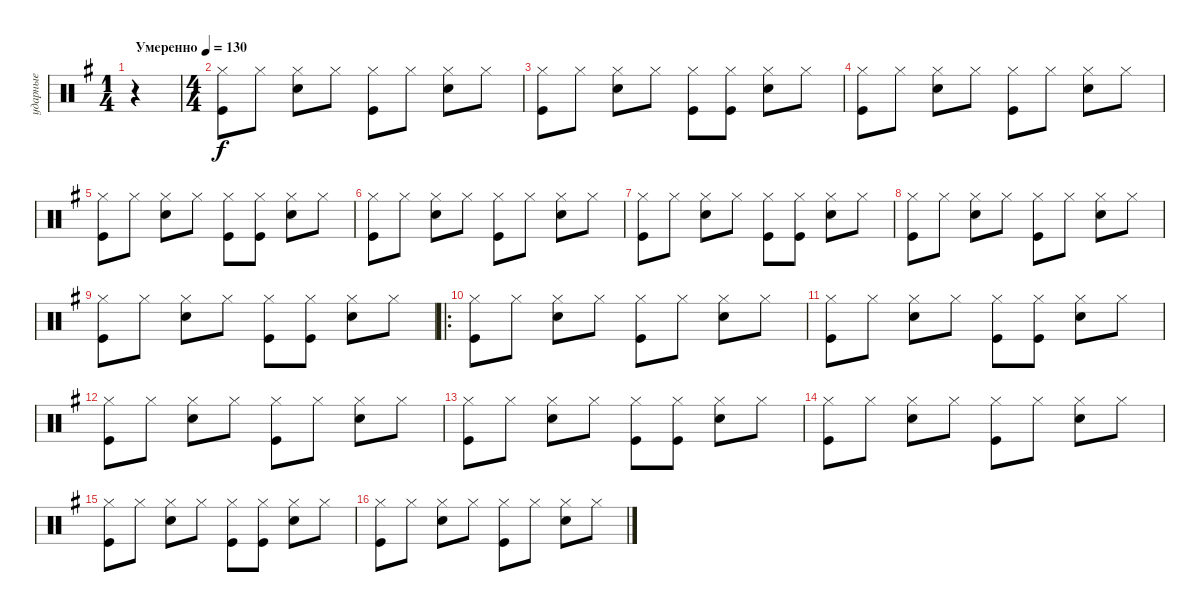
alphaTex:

\track ("ударные" "ударные") {instrument percussion}
\staff {score}
\articulation defaults
\ts (1 4)
\tempo (130 "Умеренно")
\clef neutral
\ks eminor
r.4{dy f} |
\ts (4 4)
("Kick (hit)" "Hi-Hat (closed)").8 "Hi-Hat (closed)".8 ("Snare (hit) 2" "Hi-Hat (closed)").8 "Hi-Hat (closed)".8 ("Kick (hit)" "Hi-Hat (closed)").8 "Hi-Hat (closed)".8 ("Snare (hit) 2" "Hi-Hat (closed)").8 "Hi-Hat (closed)".8 |
("Kick (hit)" "Hi-Hat (closed)").8 "Hi-Hat (closed)".8 ("Snare (hit) 2" "Hi-Hat (closed)").8 "Hi-Hat (closed)".8 ("Kick (hit)" "Hi-Hat (closed)").8 ("Hi-Hat (closed)" "Kick (hit)").8 ("Snare (hit) 2" "Hi-Hat (closed)").8 "Hi-Hat (closed)".8 |
("Kick (hit)" "Hi-Hat (closed)").8 "Hi-Hat (closed)".8 ("Snare (hit) 2" "Hi-Hat (closed)").8 "Hi-Hat (closed)".8 ("Kick (hit)" "Hi-Hat (closed)").8 "Hi-Hat (closed)".8 ("Snare (hit) 2" "Hi-Hat (closed)").8 "Hi-Hat (closed)".8 |
("Kick (hit)" "Hi-Hat (closed)").8 "Hi-Hat (closed)".8 ("Snare (hit) 2" "Hi-Hat (closed)").8 "Hi-Hat (closed)".8 ("Kick (hit)" "Hi-Hat (closed)").8 ("Hi-Hat (closed)" "Kick (hit)").8 ("Snare (hit) 2" "Hi-Hat (closed)").8 "Hi-Hat (closed)".8 |
("Kick (hit)" "Hi-Hat (closed)").8 "Hi-Hat (closed)".8 ("Snare (hit) 2" "Hi-Hat (closed)").8 "Hi-Hat (closed)".8 ("Kick (hit)" "Hi-Hat (closed)").8 "Hi-Hat (closed)".8 ("Snare (hit) 2" "Hi-Hat (closed)").8 "Hi-Hat (closed)".8 |
("Kick (hit)" "Hi-Hat (closed)").8 "Hi-Hat (closed)".8 ("Snare (hit) 2" "Hi-Hat (closed)").8 "Hi-Hat (closed)".8 ("Kick (hit)" "Hi-Hat (closed)").8 ("Hi-Hat (closed)" "Kick (hit)").8 ("Snare (hit) 2" "Hi-Hat (closed)").8 "Hi-Hat (closed)".8 |
("Kick (hit)" "Hi-Hat (closed)").8 "Hi-Hat (closed)".8 ("Snare (hit) 2" "Hi-Hat (closed)").8 "Hi-Hat (closed)".8 ("Kick (hit)" "Hi-Hat (closed)").8 "Hi-Hat (closed)".8 ("Snare (hit) 2" "Hi-Hat (closed)").8 "Hi-Hat (closed)".8 |
("Kick (hit)" "Hi-Hat (closed)").8 "Hi-Hat (closed)".8 ("Snare (hit) 2" "Hi-Hat (closed)").8 "Hi-Hat (closed)".8 ("Kick (hit)" "Hi-Hat (closed)").8 ("Hi-Hat (closed)" "Kick (hit)").8 ("Snare (hit) 2" "Hi-Hat (closed)").8 "Hi-Hat (closed)".8 |
\ro
("Kick (hit)" "Hi-Hat (closed)").8 "Hi-Hat (closed)".8 ("Snare (hit) 2" "Hi-Hat (closed)").8 "Hi-Hat (closed)".8 ("Kick (hit)" "Hi-Hat (closed)").8 "Hi-Hat (closed)".8 ("Snare (hit) 2" "Hi-Hat (closed)").8 "Hi-Hat (closed)".8 |
("Kick (hit)" "Hi-Hat (closed)").8 "Hi-Hat (closed)".8 ("Snare (hit) 2" "Hi-Hat (closed)").8 "Hi-Hat (closed)".8 ("Kick (hit)" "Hi-Hat (closed)").8 ("Hi-Hat (closed)" "Kick (hit)").8 ("Snare (hit) 2" "Hi-Hat (closed)").8 "Hi-Hat (closed)".8 |
("Kick (hit)" "Hi-Hat (closed)").8 "Hi-Hat (closed)".8 ("Snare (hit) 2" "Hi-Hat (closed)").8 "Hi-Hat (closed)".8 ("Kick (hit)" "Hi-Hat (closed)").8 "Hi-Hat (closed)".8 ("Snare (hit) 2" "Hi-Hat (closed)").8 "Hi-Hat (closed)".8 |
("Kick (hit)" "Hi-Hat (closed)").8 "Hi-Hat (closed)".8 ("Snare (hit) 2" "Hi-Hat (closed)").8 "Hi-Hat (closed)".8 ("Kick (hit)" "Hi-Hat (closed)").8 ("Hi-Hat (closed)" "Kick (hit)").8 ("Snare (hit) 2" "Hi-Hat (closed)").8 "Hi-Hat (closed)".8 |
("Kick (hit)" "Hi-Hat (closed)").8 "Hi-Hat (closed)".8 ("Snare (hit) 2" "Hi-Hat (closed)").8 "Hi-Hat (closed)".8 ("Kick (hit)" "Hi-Hat (closed)").8 "Hi-Hat (closed)".8 ("Snare (hit) 2" "Hi-Hat (closed)").8 "Hi-Hat (closed)".8 |
("Kick (hit)" "Hi-Hat (closed)").8 "Hi-Hat (closed)".8 ("Snare (hit) 2" "Hi-Hat (closed)").8 "Hi-Hat (closed)".8 ("Kick (hit)" "Hi-Hat (closed)").8 ("Hi-Hat (closed)" "Kick (hit)").8 ("Snare (hit) 2" "Hi-Hat (closed)").8 "Hi-Hat (closed)".8 |
("Kick (hit)" "Hi-Hat (closed)").8 "Hi-Hat (closed)".8 ("Snare (hit) 2" "Hi-Hat (closed)").8 "Hi-Hat (closed)".8 ("Kick (hit)" "Hi-Hat (closed)").8 "Hi-Hat (closed)".8 ("Snare (hit) 2" "Hi-Hat (closed)").8 "Hi-Hat (closed)".8
